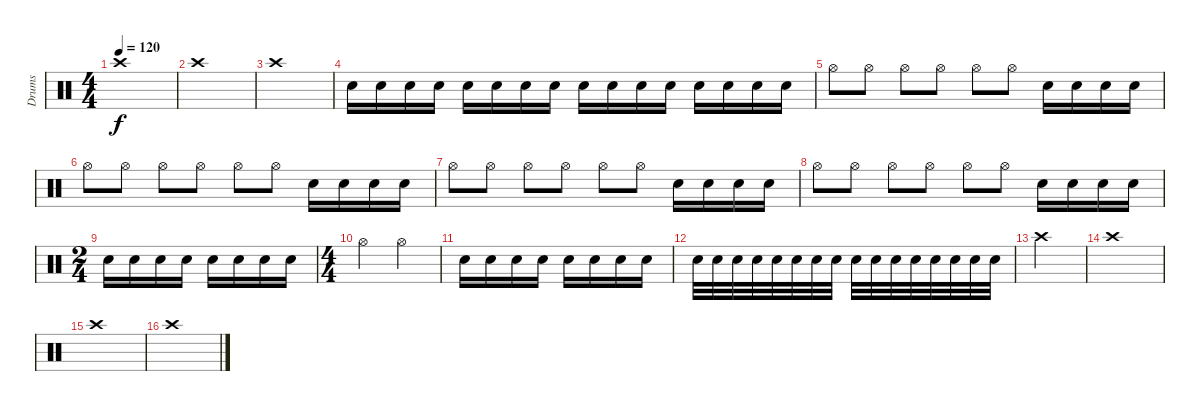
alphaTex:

\track ("Drums" "Drums") {instrument percussion}
\staff {score}
\articulation defaults
\ts (4 4)
\tempo 120
\clef neutral
\ks c "Crash high (hit)".1{dy f}
|
"Crash high (hit)".1 |
"Crash high (hit)".1 |
"Electric Snare (hit)".16 "Electric Snare (hit)".16 "Electric Snare (hit)".16 "Electric Snare (hit)".16 "Electric Snare (hit)".16 "Electric Snare (hit)".16 "Electric Snare (hit)".16 "Electric Snare (hit)".16 "Electric Snare (hit)".16 "Electric Snare (hit)".16 "Electric Snare (hit)".16 "Electric Snare (hit)".16 "Electric Snare (hit)".16 "Electric Snare (hit)".16 "Electric Snare (hit)".16 "Electric Snare (hit)".16 |
"Hi-Hat (open)".8 "Hi-Hat (open)".8 "Hi-Hat (open)".8 "Hi-Hat (open)".8 "Hi-Hat (open)".8 "Hi-Hat (open)".8 "Electric Snare (hit)".16 "Electric Snare (hit)".16 "Electric Snare (hit)".16 "Electric Snare (hit)".16 |
"Hi-Hat (open)".8 "Hi-Hat (open)".8 "Hi-Hat (open)".8 "Hi-Hat (open)".8 "Hi-Hat (open)".8 "Hi-Hat (open)".8 "Electric Snare (hit)".16 "Electric Snare (hit)".16 "Electric Snare (hit)".16 "Electric Snare (hit)".16 |
"Hi-Hat (open)".8 "Hi-Hat (open)".8 "Hi-Hat (open)".8 "Hi-Hat (open)".8 "Hi-Hat (open)".8 "Hi-Hat (open)".8 "Electric Snare (hit)".16 "Electric Snare (hit)".16 "Electric Snare (hit)".16 "Electric Snare (hit)".16 |
"Hi-Hat (open)".8 "Hi-Hat (open)".8 "Hi-Hat (open)".8 "Hi-Hat (open)".8 "Hi-Hat (open)".8 "Hi-Hat (open)".8 "Electric Snare (hit)".16 "Electric Snare (hit)".16 "Electric Snare (hit)".16 "Electric Snare (hit)".16 |
\ts (2 4)
"Electric Snare (hit)".16 "Electric Snare (hit)".16 "Electric Snare (hit)".16 "Electric Snare (hit)".16 "Electric Snare (hit)".16 "Electric Snare (hit)".16 "Electric Snare (hit)".16 "Electric Snare (hit)".16 |
\ts (4 4)
"Hi-Hat (open)".4 "Hi-Hat (open)".4 |
"Electric Snare (hit)".16 "Electric Snare (hit)".16 "Electric Snare (hit)".16 "Electric Snare (hit)".16 "Electric Snare (hit)".16 "Electric Snare (hit)".16 "Electric Snare (hit)".16 "Electric Snare (hit)".16 |
"Electric Snare (hit)".32 "Electric Snare (hit)".32 "Electric Snare (hit)".32 "Electric Snare (hit)".32 "Electric Snare (hit)".32 "Electric Snare (hit)".32 "Electric Snare (hit)".32 "Electric Snare (hit)".32 "Electric Snare (hit)".32 "Electric Snare (hit)".32 "Electric Snare (hit)".32 "Electric Snare (hit)".32 "Electric Snare (hit)".32 "Electric Snare (hit)".32 "Electric Snare (hit)".32 "Electric Snare (hit)".32 |
"Crash high (hit)".2 |
"Crash high (hit)".1 |
"Crash high (hit)".1 |
"Crash high (hit)".1
